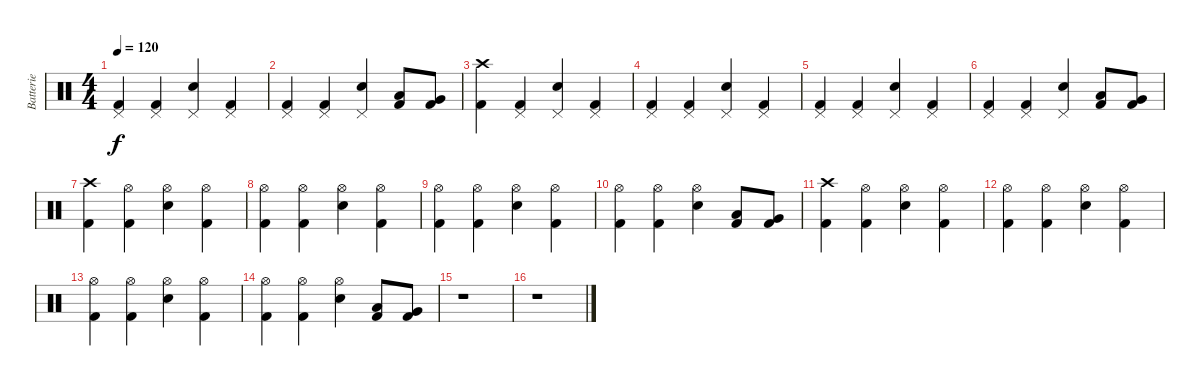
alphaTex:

\track ("Batterie" "Batterie") {instrument percussion}
\staff {score}
\articulation defaults
\ts (4 4)
\tempo 120
\clef neutral
\ks c
("Pedal Hi-Hat (hit)" "Kick (hit) 2").4{dy f} ("Pedal Hi-Hat (hit)" "Kick (hit) 2").4 ("Pedal Hi-Hat (hit)" "Electric Snare (hit)").4 ("Pedal Hi-Hat (hit)" "Kick (hit) 2").4 |
("Pedal Hi-Hat (hit)" "Kick (hit) 2").4 ("Pedal Hi-Hat (hit)" "Kick (hit) 2").4 ("Pedal Hi-Hat (hit)" "Electric Snare (hit)").4 ("Low Tom (hit)" "Kick (hit) 2").8 ("Very Low Tom (hit)" "Kick (hit) 2").8 |
("Crash high (hit)" "Kick (hit) 2").4 ("Pedal Hi-Hat (hit)" "Kick (hit) 2").4 ("Pedal Hi-Hat (hit)" "Electric Snare (hit)").4 ("Pedal Hi-Hat (hit)" "Kick (hit) 2").4 |
("Pedal Hi-Hat (hit)" "Kick (hit) 2").4 ("Pedal Hi-Hat (hit)" "Kick (hit) 2").4 ("Pedal Hi-Hat (hit)" "Electric Snare (hit)").4 ("Pedal Hi-Hat (hit)" "Kick (hit) 2").4 |
("Pedal Hi-Hat (hit)" "Kick (hit) 2").4 ("Pedal Hi-Hat (hit)" "Kick (hit) 2").4 ("Pedal Hi-Hat (hit)" "Electric Snare (hit)").4 ("Pedal Hi-Hat (hit)" "Kick (hit) 2").4 |
("Pedal Hi-Hat (hit)" "Kick (hit) 2").4 ("Pedal Hi-Hat (hit)" "Kick (hit) 2").4 ("Pedal Hi-Hat (hit)" "Electric Snare (hit)").4 ("Low Tom (hit)" "Kick (hit) 2").8 ("Very Low Tom (hit)" "Kick (hit) 2").8 |
("Crash high (hit)" "Kick (hit) 2").4 ("Hi-Hat (open)" "Kick (hit) 2").4 ("Hi-Hat (open)" "Electric Snare (hit)").4 ("Hi-Hat (open)" "Kick (hit) 2").4 |
("Hi-Hat (open)" "Kick (hit) 2").4 ("Hi-Hat (open)" "Kick (hit) 2").4 ("Hi-Hat (open)" "Electric Snare (hit)").4 ("Hi-Hat (open)" "Kick (hit) 2").4 |
("Hi-Hat (open)" "Kick (hit) 2").4 ("Hi-Hat (open)" "Kick (hit) 2").4 ("Hi-Hat (open)" "Electric Snare (hit)").4 ("Hi-Hat (open)" "Kick (hit) 2").4 |
("Hi-Hat (open)" "Kick (hit) 2").4 ("Hi-Hat (open)" "Kick (hit) 2").4 ("Hi-Hat (open)" "Electric Snare (hit)").4 ("Low Tom (hit)" "Kick (hit) 2").8 ("Very Low Tom (hit)" "Kick (hit) 2").8 |
("Crash high (hit)" "Kick (hit) 2").4 ("Hi-Hat (open)" "Kick (hit) 2").4 ("Hi-Hat (open)" "Electric Snare (hit)").4 ("Hi-Hat (open)" "Kick (hit) 2").4 |
("Hi-Hat (open)" "Kick (hit) 2").4 ("Hi-Hat (open)" "Kick (hit) 2").4 ("Hi-Hat (open)" "Electric Snare (hit)").4 ("Hi-Hat (open)" "Kick (hit) 2").4 |
("Hi-Hat (open)" "Kick (hit) 2").4 ("Hi-Hat (open)" "Kick (hit) 2").4 ("Hi-Hat (open)" "Electric Snare (hit)").4 ("Hi-Hat (open)" "Kick (hit) 2").4 |
("Hi-Hat (open)" "Kick (hit) 2").4 ("Hi-Hat (open)" "Kick (hit) 2").4 ("Hi-Hat (open)" "Electric Snare (hit)").4 ("Low Tom (hit)" "Kick (hit) 2").8 ("Very Low Tom (hit)" "Kick (hit) 2").8 |
r.1 |
r.1
